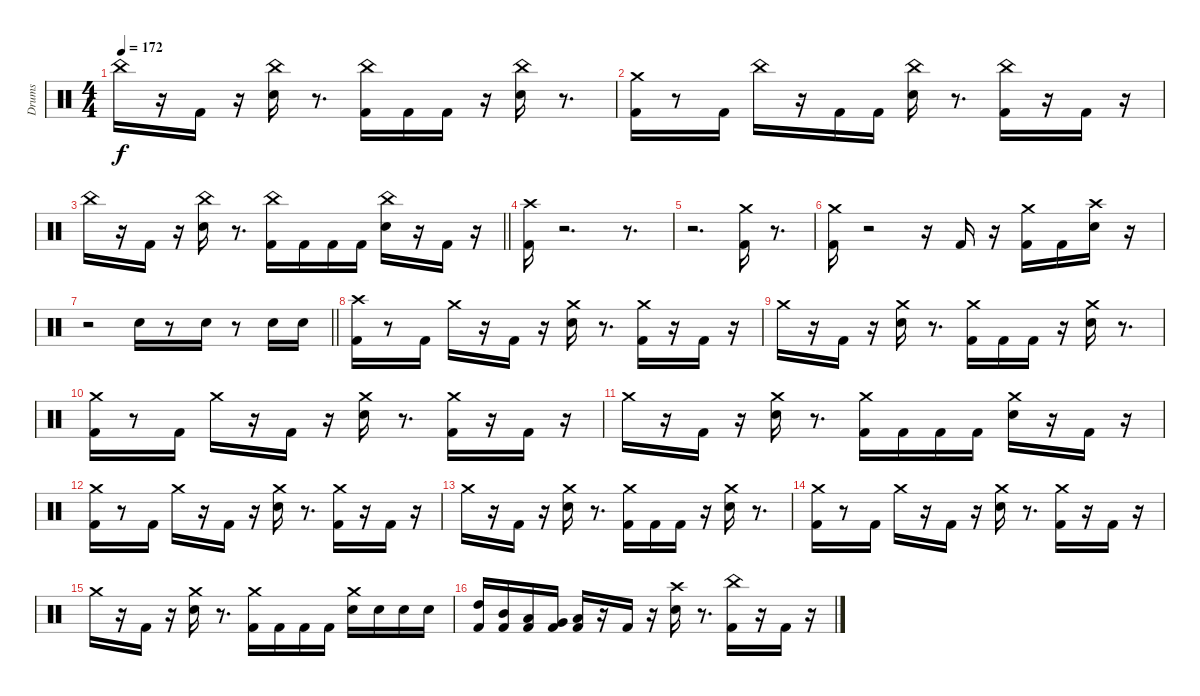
\track ("Drums" "Drums") {instrument percussion}
\staff {score}
\articulation defaults
\ts (4 4)
\tempo 172
\clef neutral
\ks c "China (hit)".16{dy f}
r.16 "Kick (hit) 2".16 r.16 ("Snare (hit) 2" "China (hit)").16 r.8{d} ("Kick (hit) 2" "China (hit)").16 "Kick (hit) 2".16 "Kick (hit) 2".16 r.16 ("Snare (hit) 2" "China (hit)").16 r.8{d} |
("Kick (hit) 2" "Crash medium (hit)").16 r.8 "Kick (hit) 2".16 "China (hit)".16 r.16 "Kick (hit) 2".16 "Kick (hit) 2".16 ("Snare (hit) 2" "China (hit)").16 r.8{d} ("Kick (hit) 2" "China (hit)").16 r.16 "Kick (hit) 2".16 r.16 |
\barLineRight lightlight "China (hit)".16
r.16 "Kick (hit) 2".16 r.16 ("Snare (hit) 2" "China (hit)").16 r.8{d} ("Kick (hit) 2" "China (hit)").16 "Kick (hit) 2".16 "Kick (hit) 2".16 "Kick (hit) 2".16 ("Snare (hit) 2" "China (hit)").16 r.16 "Kick (hit) 2".16 r.16 |
\section ("" " ")
("Kick (hit) 2" "Crash high (hit)").16 r.2{d} r.8{d} |
r.2{d} ("Kick (hit) 2" "Crash medium (hit)").16 r.8{d} |
("Kick (hit) 2" "Crash medium (hit)").16 r.2 r.16 "Kick (hit) 2".16 r.16 ("Kick (hit) 2" "Crash medium (hit)").16 "Kick (hit) 2".16 ("Snare (hit) 2" "Crash high (hit)").16 r.16 |
\barLineRight lightlight
r.2 "Snare (hit) 2".16 r.8 "Snare (hit) 2".16 r.8 "Snare (hit) 2".16 "Snare (hit) 2".16 |
\section ("" " ")
("Kick (hit) 2" "Crash high (hit)").16 r.8 "Kick (hit) 2".16 "Crash medium (hit)".16 r.16 "Kick (hit) 2".16 r.16 ("Snare (hit) 2" "Crash medium (hit)").16 r.8{d} ("Kick (hit) 2" "Crash medium (hit)").16 r.16 "Kick (hit) 2".16 r.16 |
"Crash medium (hit)".16 r.16 "Kick (hit) 2".16 r.16 ("Snare (hit) 2" "Crash medium (hit)").16 r.8{d} ("Kick (hit) 2" "Crash medium (hit)").16 "Kick (hit) 2".16 "Kick (hit) 2".16 r.16 ("Snare (hit) 2" "Crash medium (hit)").16 r.8{d} |
("Kick (hit) 2" "Crash medium (hit)").16 r.8 "Kick (hit) 2".16 "Crash medium (hit)".16 r.16 "Kick (hit) 2".16 r.16 ("Snare (hit) 2" "Crash medium (hit)").16 r.8{d} ("Kick (hit) 2" "Crash medium (hit)").16 r.16 "Kick (hit) 2".16 r.16 |
"Crash medium (hit)".16 r.16 "Kick (hit) 2".16 r.16 ("Snare (hit) 2" "Crash medium (hit)").16 r.8{d} ("Kick (hit) 2" "Crash medium (hit)").16 "Kick (hit) 2".16 "Kick (hit) 2".16 "Kick (hit) 2".16 ("Snare (hit) 2" "Crash medium (hit)").16 r.16 "Kick (hit) 2".16 r.16 |
("Kick (hit) 2" "Crash medium (hit)").16 r.8 "Kick (hit) 2".16 "Crash medium (hit)".16 r.16 "Kick (hit) 2".16 r.16 ("Snare (hit) 2" "Crash medium (hit)").16 r.8{d} ("Kick (hit) 2" "Crash medium (hit)").16 r.16 "Kick (hit) 2".16 r.16 |
"Crash medium (hit)".16 r.16 "Kick (hit) 2".16 r.16 ("Snare (hit) 2" "Crash medium (hit)").16 r.8{d} ("Kick (hit) 2" "Crash medium (hit)").16 "Kick (hit) 2".16 "Kick (hit) 2".16 r.16 ("Snare (hit) 2" "Crash medium (hit)").16 r.8{d} |
("Kick (hit) 2" "Crash medium (hit)").16 r.8 "Kick (hit) 2".16 "Crash medium (hit)".16 r.16 "Kick (hit) 2".16 r.16 ("Snare (hit) 2" "Crash medium (hit)").16 r.8{d} ("Kick (hit) 2" "Crash medium (hit)").16 r.16 "Kick (hit) 2".16 r.16 |
"Crash medium (hit)".16 r.16 "Kick (hit) 2".16 r.16 ("Snare (hit) 2" "Crash medium (hit)").16 r.8{d} ("Kick (hit) 2" "Crash medium (hit)").16 "Kick (hit) 2".16 "Kick (hit) 2".16 "Kick (hit) 2".16 ("Snare (hit) 2" "Crash medium (hit)").16 "Snare (hit) 2".16 "Snare (hit) 2".16 "Snare (hit) 2".16 |
("Kick (hit) 2" "High Tom (hit)").16 ("Kick (hit) 2" "Mid Tom (hit)").16 ("Kick (hit) 2" "Low Tom (hit)").16 ("Kick (hit) 2" "Very Low Tom (hit)").16 ("Kick (hit) 2" "Low Floor Tom (hit)").16 r.16 "Kick (hit) 2".16 r.16 ("Snare (hit) 2" "Crash high (hit)").16 r.8{d} ("Kick (hit) 2" "China (hit)").16 r.16 "Kick (hit) 2".16 r.16
